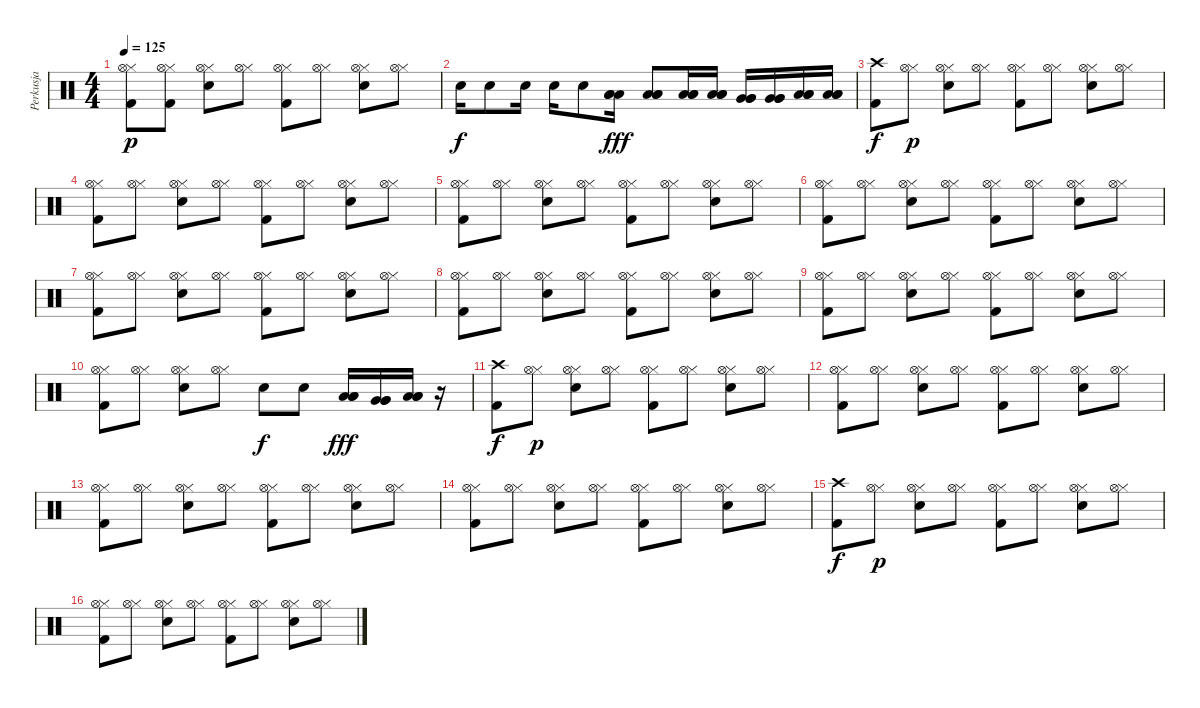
\track ("Perkusja" "Perkusja") {instrument percussion}
\staff {score}
\articulation defaults
\ts (4 4)
\tempo 125
\clef neutral
\ks c
("Kick (hit) 2" "Hi-Hat (closed)" "Hi-Hat (open)").8{dy p} ("Kick (hit) 2" "Hi-Hat (closed)" "Hi-Hat (open)").8 ("Electric Snare (hit)" "Hi-Hat (closed)" "Hi-Hat (open)").8 ("Hi-Hat (closed)" "Hi-Hat (open)").8 ("Kick (hit) 2" "Hi-Hat (closed)" "Hi-Hat (open)").8 ("Hi-Hat (closed)" "Hi-Hat (open)").8 ("Electric Snare (hit)" "Hi-Hat (closed)" "Hi-Hat (open)").8 ("Hi-Hat (closed)" "Hi-Hat (open)").8 |
"Electric Snare (hit)".16{dy f} "Electric Snare (hit)".8 "Electric Snare (hit)".16 "Electric Snare (hit)".16 "Electric Snare (hit)".8 ("Low Tom (hit)" "Low Tom (hit)" "Low Tom (hit)").16{dy fff} ("Low Tom (hit)" "Low Tom (hit)" "Low Tom (hit)").8 ("Low Tom (hit)" "Low Tom (hit)" "Low Tom (hit)").16 ("Low Tom (hit)" "Low Tom (hit)" "Low Tom (hit)").16 ("Very Low Tom (hit)" "Very Low Tom (hit)" "Very Low Tom (hit)").16 ("Very Low Tom (hit)" "Very Low Tom (hit)" "Very Low Tom (hit)").16 ("Low Floor Tom (hit)" "Low Floor Tom (hit)" "Low Floor Tom (hit)").16 ("Low Floor Tom (hit)" "Low Floor Tom (hit)" "Low Floor Tom (hit)").16 |
("Kick (hit) 2" "Crash high (hit)").8{dy f} ("Hi-Hat (closed)" "Hi-Hat (open)").8{dy p} ("Electric Snare (hit)" "Hi-Hat (closed)" "Hi-Hat (open)").8 ("Hi-Hat (closed)" "Hi-Hat (open)").8 ("Kick (hit) 2" "Hi-Hat (closed)" "Hi-Hat (open)").8 ("Hi-Hat (closed)" "Hi-Hat (open)").8 ("Electric Snare (hit)" "Hi-Hat (closed)" "Hi-Hat (open)").8 ("Hi-Hat (closed)" "Hi-Hat (open)").8 |
("Kick (hit) 2" "Hi-Hat (closed)" "Hi-Hat (open)").8 ("Hi-Hat (closed)" "Hi-Hat (open)").8 ("Electric Snare (hit)" "Hi-Hat (closed)" "Hi-Hat (open)").8 ("Hi-Hat (closed)" "Hi-Hat (open)").8 ("Kick (hit) 2" "Hi-Hat (closed)" "Hi-Hat (open)").8 ("Hi-Hat (closed)" "Hi-Hat (open)").8 ("Electric Snare (hit)" "Hi-Hat (closed)" "Hi-Hat (open)").8 ("Hi-Hat (closed)" "Hi-Hat (open)").8 |
("Kick (hit) 2" "Hi-Hat (closed)" "Hi-Hat (open)").8 ("Hi-Hat (closed)" "Hi-Hat (open)").8 ("Electric Snare (hit)" "Hi-Hat (closed)" "Hi-Hat (open)").8 ("Hi-Hat (closed)" "Hi-Hat (open)").8 ("Kick (hit) 2" "Hi-Hat (closed)" "Hi-Hat (open)").8 ("Hi-Hat (closed)" "Hi-Hat (open)").8 ("Electric Snare (hit)" "Hi-Hat (closed)" "Hi-Hat (open)").8 ("Hi-Hat (closed)" "Hi-Hat (open)").8 |
("Kick (hit) 2" "Hi-Hat (closed)" "Hi-Hat (open)").8 ("Hi-Hat (closed)" "Hi-Hat (open)").8 ("Electric Snare (hit)" "Hi-Hat (closed)" "Hi-Hat (open)").8 ("Hi-Hat (closed)" "Hi-Hat (open)").8 ("Kick (hit) 2" "Hi-Hat (closed)" "Hi-Hat (open)").8 ("Hi-Hat (closed)" "Hi-Hat (open)").8 ("Electric Snare (hit)" "Hi-Hat (closed)" "Hi-Hat (open)").8 ("Hi-Hat (closed)" "Hi-Hat (open)").8 |
("Kick (hit) 2" "Hi-Hat (closed)" "Hi-Hat (open)").8 ("Hi-Hat (closed)" "Hi-Hat (open)").8 ("Electric Snare (hit)" "Hi-Hat (closed)" "Hi-Hat (open)").8 ("Hi-Hat (closed)" "Hi-Hat (open)").8 ("Kick (hit) 2" "Hi-Hat (closed)" "Hi-Hat (open)").8 ("Hi-Hat (closed)" "Hi-Hat (open)").8 ("Electric Snare (hit)" "Hi-Hat (closed)" "Hi-Hat (open)").8 ("Hi-Hat (closed)" "Hi-Hat (open)").8 |
("Kick (hit) 2" "Hi-Hat (closed)" "Hi-Hat (open)").8 ("Hi-Hat (closed)" "Hi-Hat (open)").8 ("Electric Snare (hit)" "Hi-Hat (closed)" "Hi-Hat (open)").8 ("Hi-Hat (closed)" "Hi-Hat (open)").8 ("Kick (hit) 2" "Hi-Hat (closed)" "Hi-Hat (open)").8 ("Hi-Hat (closed)" "Hi-Hat (open)").8 ("Electric Snare (hit)" "Hi-Hat (closed)" "Hi-Hat (open)").8 ("Hi-Hat (closed)" "Hi-Hat (open)").8 |
("Kick (hit) 2" "Hi-Hat (closed)" "Hi-Hat (open)").8 ("Hi-Hat (closed)" "Hi-Hat (open)").8 ("Electric Snare (hit)" "Hi-Hat (closed)" "Hi-Hat (open)").8 ("Hi-Hat (closed)" "Hi-Hat (open)").8 ("Kick (hit) 2" "Hi-Hat (closed)" "Hi-Hat (open)").8 ("Hi-Hat (closed)" "Hi-Hat (open)").8 ("Electric Snare (hit)" "Hi-Hat (closed)" "Hi-Hat (open)").8 ("Hi-Hat (closed)" "Hi-Hat (open)").8 |
("Kick (hit) 2" "Hi-Hat (closed)" "Hi-Hat (open)").8 ("Hi-Hat (closed)" "Hi-Hat (open)").8 ("Electric Snare (hit)" "Hi-Hat (closed)" "Hi-Hat (open)").8 ("Hi-Hat (closed)" "Hi-Hat (open)").8 "Electric Snare (hit)".8{dy f} "Electric Snare (hit)".8 ("Low Tom (hit)" "Low Tom (hit)" "Low Tom (hit)").16{dy fff} ("Very Low Tom (hit)" "Very Low Tom (hit)" "Very Low Tom (hit)").16 ("Low Floor Tom (hit)" "Low Floor Tom (hit)" "Low Floor Tom (hit)").16 r.16 |
("Kick (hit) 2" "Crash high (hit)").8{dy f} ("Hi-Hat (closed)" "Hi-Hat (open)").8{dy p} ("Electric Snare (hit)" "Hi-Hat (closed)" "Hi-Hat (open)").8 ("Hi-Hat (closed)" "Hi-Hat (open)").8 ("Kick (hit) 2" "Hi-Hat (closed)" "Hi-Hat (open)").8 ("Hi-Hat (closed)" "Hi-Hat (open)").8 ("Electric Snare (hit)" "Hi-Hat (closed)" "Hi-Hat (open)").8 ("Hi-Hat (closed)" "Hi-Hat (open)").8 |
("Kick (hit) 2" "Hi-Hat (closed)" "Hi-Hat (open)").8 ("Hi-Hat (closed)" "Hi-Hat (open)").8 ("Electric Snare (hit)" "Hi-Hat (closed)" "Hi-Hat (open)").8 ("Hi-Hat (closed)" "Hi-Hat (open)").8 ("Kick (hit) 2" "Hi-Hat (closed)" "Hi-Hat (open)").8 ("Hi-Hat (closed)" "Hi-Hat (open)").8 ("Electric Snare (hit)" "Hi-Hat (closed)" "Hi-Hat (open)").8 ("Hi-Hat (closed)" "Hi-Hat (open)").8 |
("Kick (hit) 2" "Hi-Hat (closed)" "Hi-Hat (open)").8 ("Hi-Hat (closed)" "Hi-Hat (open)").8 ("Electric Snare (hit)" "Hi-Hat (closed)" "Hi-Hat (open)").8 ("Hi-Hat (closed)" "Hi-Hat (open)").8 ("Kick (hit) 2" "Hi-Hat (closed)" "Hi-Hat (open)").8 ("Hi-Hat (closed)" "Hi-Hat (open)").8 ("Electric Snare (hit)" "Hi-Hat (closed)" "Hi-Hat (open)").8 ("Hi-Hat (closed)" "Hi-Hat (open)").8 |
("Kick (hit) 2" "Hi-Hat (closed)" "Hi-Hat (open)").8 ("Hi-Hat (closed)" "Hi-Hat (open)").8 ("Electric Snare (hit)" "Hi-Hat (closed)" "Hi-Hat (open)").8 ("Hi-Hat (closed)" "Hi-Hat (open)").8 ("Kick (hit) 2" "Hi-Hat (closed)" "Hi-Hat (open)").8 ("Hi-Hat (closed)" "Hi-Hat (open)").8 ("Electric Snare (hit)" "Hi-Hat (closed)" "Hi-Hat (open)").8 ("Hi-Hat (closed)" "Hi-Hat (open)").8 |
("Kick (hit) 2" "Crash high (hit)").8{dy f} ("Hi-Hat (closed)" "Hi-Hat (open)").8{dy p} ("Electric Snare (hit)" "Hi-Hat (closed)" "Hi-Hat (open)").8 ("Hi-Hat (closed)" "Hi-Hat (open)").8 ("Kick (hit) 2" "Hi-Hat (closed)" "Hi-Hat (open)").8 ("Hi-Hat (closed)" "Hi-Hat (open)").8 ("Electric Snare (hit)" "Hi-Hat (closed)" "Hi-Hat (open)").8 ("Hi-Hat (closed)" "Hi-Hat (open)").8 |
("Kick (hit) 2" "Hi-Hat (closed)" "Hi-Hat (open)").8 ("Hi-Hat (closed)" "Hi-Hat (open)").8 ("Electric Snare (hit)" "Hi-Hat (closed)" "Hi-Hat (open)").8 ("Hi-Hat (closed)" "Hi-Hat (open)").8 ("Kick (hit) 2" "Hi-Hat (closed)" "Hi-Hat (open)").8 ("Hi-Hat (closed)" "Hi-Hat (open)").8 ("Electric Snare (hit)" "Hi-Hat (closed)" "Hi-Hat (open)").8 ("Hi-Hat (closed)" "Hi-Hat (open)").8
